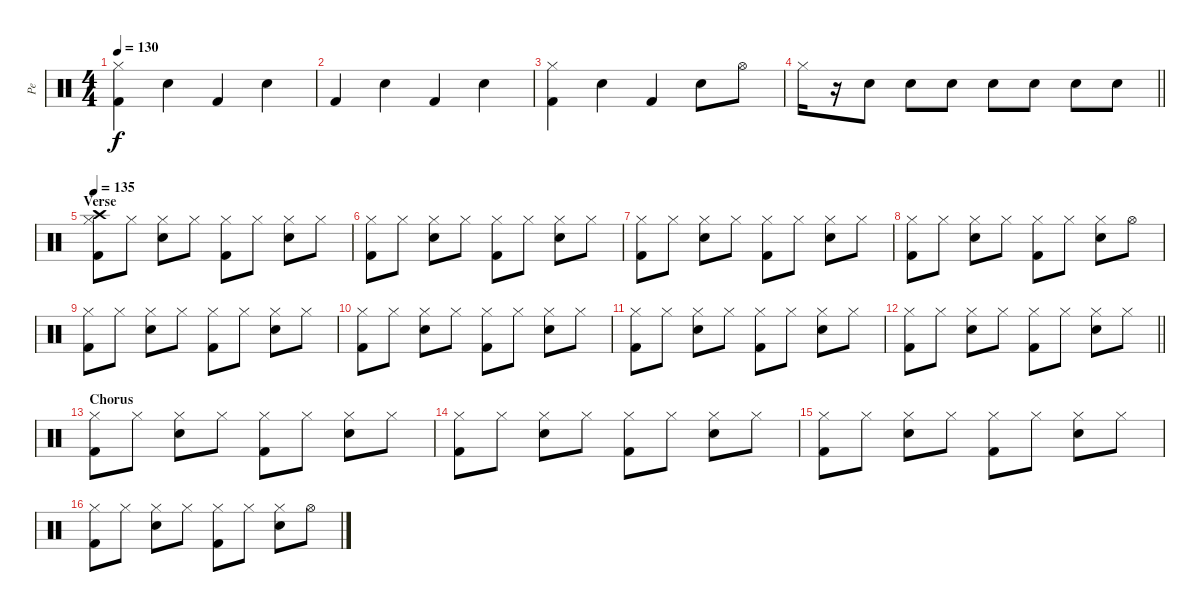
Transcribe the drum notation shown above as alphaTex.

\track ("Pe" "Pe") {instrument percussion}
\staff {score}
\articulation defaults
\ts (4 4)
\tempo 130
\clef neutral
\ks c
("Hi-Hat (closed)" "Kick (hit) 2").4{dy f} "Electric Snare (hit)".4 "Kick (hit) 2".4 "Electric Snare (hit)".4 |
"Kick (hit) 2".4 "Electric Snare (hit)".4 "Kick (hit) 2".4 "Electric Snare (hit)".4 |
("Hi-Hat (closed)" "Kick (hit) 2").4 "Electric Snare (hit)".4 "Kick (hit) 2".4 "Electric Snare (hit)".8 "Hi-Hat (open)".8 |
\barLineRight lightlight "Hi-Hat (closed)".16
r.16{volume 6} "Electric Snare (hit)".8{volume 16} "Electric Snare (hit)".8 "Electric Snare (hit)".8 "Electric Snare (hit)".8 "Electric Snare (hit)".8 "Electric Snare (hit)".8 "Electric Snare (hit)".8 |
\section ("" "Verse")
\tempo 135
("Crash high (hit)" "Hi-Hat (closed)" "Kick (hit) 2").8 "Hi-Hat (closed)".8 ("Hi-Hat (closed)" "Electric Snare (hit)").8 "Hi-Hat (closed)".8 ("Hi-Hat (closed)" "Kick (hit) 2").8 "Hi-Hat (closed)".8 ("Hi-Hat (closed)" "Electric Snare (hit)").8 "Hi-Hat (closed)".8 |
("Hi-Hat (closed)" "Kick (hit) 2").8 "Hi-Hat (closed)".8 ("Hi-Hat (closed)" "Electric Snare (hit)").8 "Hi-Hat (closed)".8 ("Hi-Hat (closed)" "Kick (hit) 2").8 "Hi-Hat (closed)".8 ("Hi-Hat (closed)" "Electric Snare (hit)").8 "Hi-Hat (closed)".8 |
("Hi-Hat (closed)" "Kick (hit) 2").8 "Hi-Hat (closed)".8 ("Hi-Hat (closed)" "Electric Snare (hit)").8 "Hi-Hat (closed)".8 ("Hi-Hat (closed)" "Kick (hit) 2").8 "Hi-Hat (closed)".8 ("Hi-Hat (closed)" "Electric Snare (hit)").8 "Hi-Hat (closed)".8 |
("Hi-Hat (closed)" "Kick (hit) 2").8 "Hi-Hat (closed)".8 ("Hi-Hat (closed)" "Electric Snare (hit)").8 "Hi-Hat (closed)".8 ("Hi-Hat (closed)" "Kick (hit) 2").8 "Hi-Hat (closed)".8 ("Hi-Hat (closed)" "Electric Snare (hit)").8 "Hi-Hat (open)".8 |
("Hi-Hat (closed)" "Kick (hit) 2").8 "Hi-Hat (closed)".8 ("Hi-Hat (closed)" "Electric Snare (hit)").8 "Hi-Hat (closed)".8 ("Hi-Hat (closed)" "Kick (hit) 2").8 "Hi-Hat (closed)".8 ("Hi-Hat (closed)" "Electric Snare (hit)").8 "Hi-Hat (closed)".8 |
("Hi-Hat (closed)" "Kick (hit) 2").8 "Hi-Hat (closed)".8 ("Hi-Hat (closed)" "Electric Snare (hit)").8 "Hi-Hat (closed)".8 ("Hi-Hat (closed)" "Kick (hit) 2").8 "Hi-Hat (closed)".8 ("Hi-Hat (closed)" "Electric Snare (hit)").8 "Hi-Hat (closed)".8 |
("Hi-Hat (closed)" "Kick (hit) 2").8 "Hi-Hat (closed)".8 ("Hi-Hat (closed)" "Electric Snare (hit)").8 "Hi-Hat (closed)".8 ("Hi-Hat (closed)" "Kick (hit) 2").8 "Hi-Hat (closed)".8 ("Hi-Hat (closed)" "Electric Snare (hit)").8 "Hi-Hat (closed)".8 |
\barLineRight lightlight
("Hi-Hat (closed)" "Kick (hit) 2").8 "Hi-Hat (closed)".8 ("Hi-Hat (closed)" "Electric Snare (hit)").8 "Hi-Hat (closed)".8 ("Hi-Hat (closed)" "Kick (hit) 2").8 "Hi-Hat (closed)".8 ("Hi-Hat (closed)" "Electric Snare (hit)").8 "Hi-Hat (closed)".8 |
\section ("" "Chorus")
("Hi-Hat (closed)" "Kick (hit) 2").8 "Hi-Hat (closed)".8 ("Hi-Hat (closed)" "Electric Snare (hit)").8 "Hi-Hat (closed)".8 ("Hi-Hat (closed)" "Kick (hit) 2").8 "Hi-Hat (closed)".8 ("Hi-Hat (closed)" "Electric Snare (hit)").8 "Hi-Hat (closed)".8 |
("Hi-Hat (closed)" "Kick (hit) 2").8 "Hi-Hat (closed)".8 ("Hi-Hat (closed)" "Electric Snare (hit)").8 "Hi-Hat (closed)".8 ("Hi-Hat (closed)" "Kick (hit) 2").8 "Hi-Hat (closed)".8 ("Hi-Hat (closed)" "Electric Snare (hit)").8 "Hi-Hat (closed)".8 |
("Hi-Hat (closed)" "Kick (hit) 2").8 "Hi-Hat (closed)".8 ("Hi-Hat (closed)" "Electric Snare (hit)").8 "Hi-Hat (closed)".8 ("Hi-Hat (closed)" "Kick (hit) 2").8 "Hi-Hat (closed)".8 ("Hi-Hat (closed)" "Electric Snare (hit)").8 "Hi-Hat (closed)".8 |
("Hi-Hat (closed)" "Kick (hit) 2").8 "Hi-Hat (closed)".8 ("Hi-Hat (closed)" "Electric Snare (hit)").8 "Hi-Hat (closed)".8 ("Hi-Hat (closed)" "Kick (hit) 2").8 "Hi-Hat (closed)".8 ("Hi-Hat (closed)" "Electric Snare (hit)").8 "Hi-Hat (open)".8
